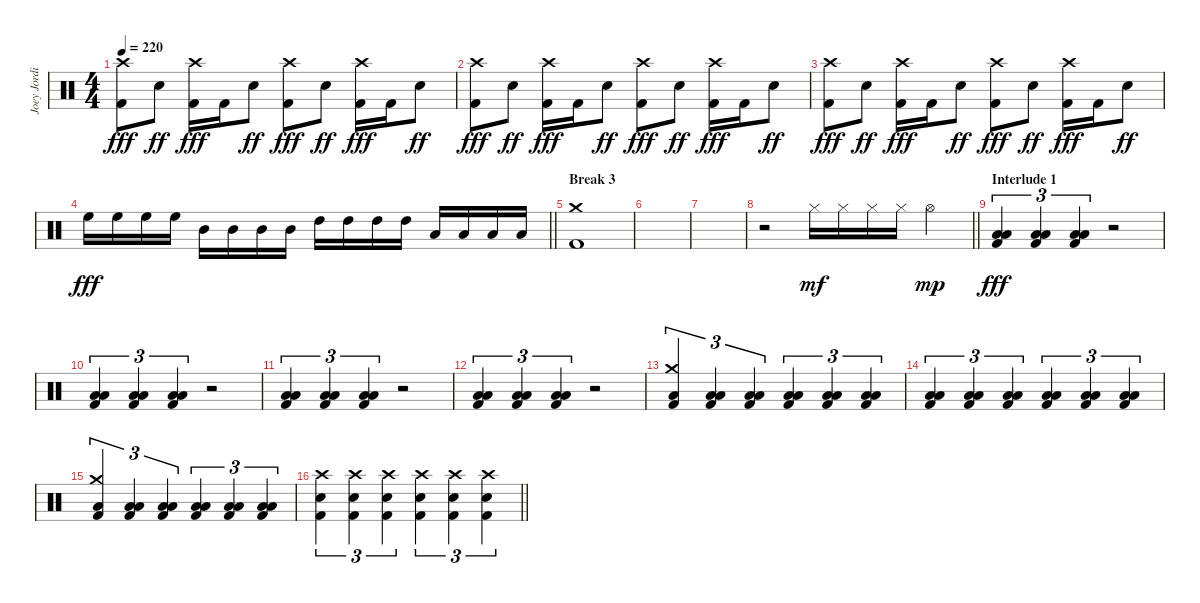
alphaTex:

\track ("Joey Jordison" "Joey Jordi") {instrument percussion}
\staff {score}
\articulation defaults
\ts (4 4)
\tempo 220
\clef neutral
\ks c
("Crash high (hit)" "Kick (hit) 2").8{dy fff} "Electric Snare (hit)".8{dy ff} ("Crash high (hit)" "Kick (hit) 2").16{dy fff} "Kick (hit) 2".16 "Electric Snare (hit)".8{dy ff} ("Crash high (hit)" "Kick (hit) 2").8{dy fff} "Electric Snare (hit)".8{dy ff} ("Crash high (hit)" "Kick (hit) 2").16{dy fff} "Kick (hit) 2".16 "Electric Snare (hit)".8{dy ff} |
("Crash high (hit)" "Kick (hit) 2").8{dy fff} "Electric Snare (hit)".8{dy ff} ("Crash high (hit)" "Kick (hit) 2").16{dy fff} "Kick (hit) 2".16 "Electric Snare (hit)".8{dy ff} ("Crash high (hit)" "Kick (hit) 2").8{dy fff} "Electric Snare (hit)".8{dy ff} ("Crash high (hit)" "Kick (hit) 2").16{dy fff} "Kick (hit) 2".16 "Electric Snare (hit)".8{dy ff} |
("Crash high (hit)" "Kick (hit) 2").8{dy fff} "Electric Snare (hit)".8{dy ff} ("Crash high (hit)" "Kick (hit) 2").16{dy fff} "Kick (hit) 2".16 "Electric Snare (hit)".8{dy ff} ("Crash high (hit)" "Kick (hit) 2").8{dy fff} "Electric Snare (hit)".8{dy ff} ("Crash high (hit)" "Kick (hit) 2").16{dy fff} "Kick (hit) 2".16 "Electric Snare (hit)".8{dy ff} |
\barLineRight lightlight "High Floor Tom (hit)".16{dy fff} "High Floor Tom (hit)".16 "High Floor Tom (hit)".16 "High Floor Tom (hit)".16 "Mid Tom (hit)".16 "Mid Tom (hit)".16 "Mid Tom (hit)".16 "Mid Tom (hit)".16 "High Tom (hit)".16 "High Tom (hit)".16 "High Tom (hit)".16 "High Tom (hit)".16 "Low Tom (hit)".16 "Low Tom (hit)".16 "Low Tom (hit)".16 "Low Tom (hit)".16
|
\section ("" "Break 3")
("Crash medium (hit)" "Kick (hit) 2").1 |
|
|
\barLineRight lightlight
r.2 "Hi-Hat (closed)".16{dy mf} "Hi-Hat (closed)".16 "Hi-Hat (closed)".16 "Hi-Hat (closed)".16 "Hi-Hat (open)".4{dy mp} |
\section ("" "Interlude 1")
("Low Tom (hit)" "Low Floor Tom (hit)" "Kick (hit) 2").4{tu (3 2) dy fff} ("Low Tom (hit)" "Low Floor Tom (hit)" "Kick (hit) 2").4{tu (3 2)} ("Low Tom (hit)" "Low Floor Tom (hit)" "Kick (hit) 2").4{tu (3 2)} r.2 |
("Low Tom (hit)" "Low Floor Tom (hit)" "Kick (hit) 2").4{tu (3 2)} ("Low Tom (hit)" "Low Floor Tom (hit)" "Kick (hit) 2").4{tu (3 2)} ("Low Tom (hit)" "Low Floor Tom (hit)" "Kick (hit) 2").4{tu (3 2)} r.2 |
("Low Tom (hit)" "Low Floor Tom (hit)" "Kick (hit) 2").4{tu (3 2)} ("Low Tom (hit)" "Low Floor Tom (hit)" "Kick (hit) 2").4{tu (3 2)} ("Low Tom (hit)" "Low Floor Tom (hit)" "Kick (hit) 2").4{tu (3 2)} r.2 |
("Low Tom (hit)" "Low Floor Tom (hit)" "Kick (hit) 2").4{tu (3 2)} ("Low Tom (hit)" "Low Floor Tom (hit)" "Kick (hit) 2").4{tu (3 2)} ("Low Tom (hit)" "Low Floor Tom (hit)" "Kick (hit) 2").4{tu (3 2)} r.2 |
("Crash medium (hit)" "Low Floor Tom (hit)" "Kick (hit) 2").4{tu (3 2)} ("Low Tom (hit)" "Low Floor Tom (hit)" "Kick (hit) 2").4{tu (3 2)} ("Low Tom (hit)" "Low Floor Tom (hit)" "Kick (hit) 2").4{tu (3 2)} ("Low Tom (hit)" "Low Floor Tom (hit)" "Kick (hit) 2").4{tu (3 2)} ("Low Tom (hit)" "Low Floor Tom (hit)" "Kick (hit) 2").4{tu (3 2)} ("Low Tom (hit)" "Low Floor Tom (hit)" "Kick (hit) 2").4{tu (3 2)} |
("Low Tom (hit)" "Low Floor Tom (hit)" "Kick (hit) 2").4{tu (3 2)} ("Low Tom (hit)" "Low Floor Tom (hit)" "Kick (hit) 2").4{tu (3 2)} ("Low Tom (hit)" "Low Floor Tom (hit)" "Kick (hit) 2").4{tu (3 2)} ("Low Tom (hit)" "Low Floor Tom (hit)" "Kick (hit) 2").4{tu (3 2)} ("Low Tom (hit)" "Low Floor Tom (hit)" "Kick (hit) 2").4{tu (3 2)} ("Low Tom (hit)" "Low Floor Tom (hit)" "Kick (hit) 2").4{tu (3 2)} |
("Crash medium (hit)" "Low Floor Tom (hit)" "Kick (hit) 2").4{tu (3 2)} ("Low Tom (hit)" "Low Floor Tom (hit)" "Kick (hit) 2").4{tu (3 2)} ("Low Tom (hit)" "Low Floor Tom (hit)" "Kick (hit) 2").4{tu (3 2)} ("Low Tom (hit)" "Low Floor Tom (hit)" "Kick (hit) 2").4{tu (3 2)} ("Low Tom (hit)" "Low Floor Tom (hit)" "Kick (hit) 2").4{tu (3 2)} ("Low Tom (hit)" "Low Floor Tom (hit)" "Kick (hit) 2").4{tu (3 2)} |
\barLineRight lightlight
("Crash high (hit)" "Electric Snare (hit)" "Kick (hit) 2").4{tu (3 2)} ("Crash high (hit)" "Electric Snare (hit)" "Kick (hit) 2").4{tu (3 2)} ("Crash high (hit)" "Electric Snare (hit)" "Kick (hit) 2").4{tu (3 2)} ("Crash high (hit)" "Electric Snare (hit)" "Kick (hit) 2").4{tu (3 2)} ("Crash high (hit)" "Electric Snare (hit)" "Kick (hit) 2").4{tu (3 2)} ("Crash high (hit)" "Electric Snare (hit)" "Kick (hit) 2").4{tu (3 2)}
